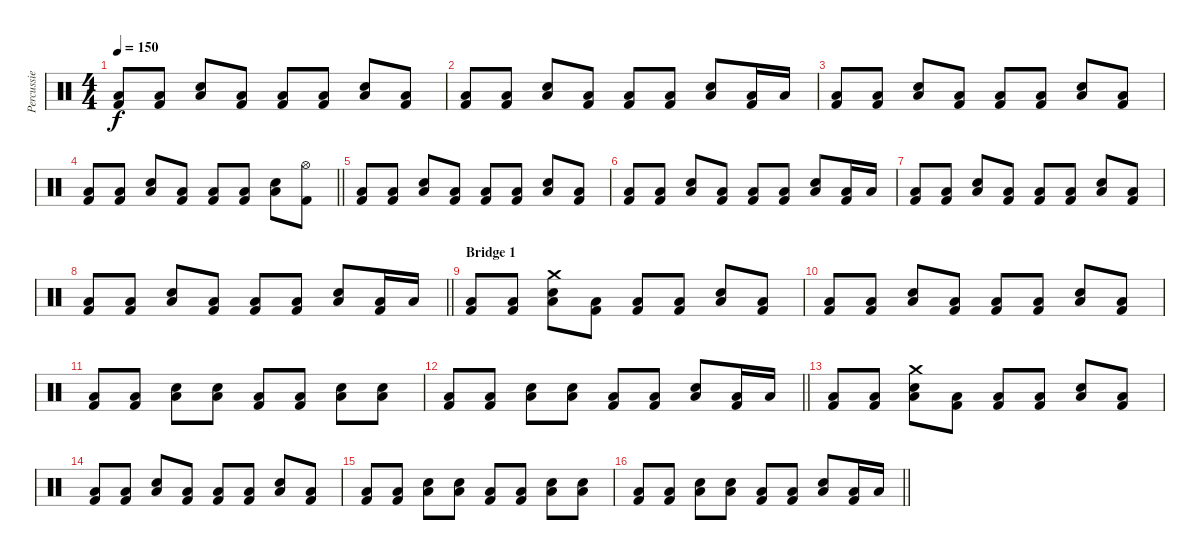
\track ("Percussie" "Percussie") {instrument percussion}
\staff {score}
\articulation defaults
\ts (4 4)
\tempo 150
\clef neutral
\ks c
("Low Floor Tom (hit)" "Kick (hit) 2").8{dy f} ("Low Floor Tom (hit)" "Kick (hit) 2").8 ("Snare (hit) 2" "Low Floor Tom (hit)").8 ("Low Floor Tom (hit)" "Kick (hit) 2").8 ("Low Floor Tom (hit)" "Kick (hit) 2").8 ("Low Floor Tom (hit)" "Kick (hit) 2").8 ("Snare (hit) 2" "Low Floor Tom (hit)").8 ("Low Floor Tom (hit)" "Kick (hit) 2").8 |
("Low Floor Tom (hit)" "Kick (hit) 2").8 ("Low Floor Tom (hit)" "Kick (hit) 2").8 ("Snare (hit) 2" "Low Floor Tom (hit)").8 ("Low Floor Tom (hit)" "Kick (hit) 2").8 ("Low Floor Tom (hit)" "Kick (hit) 2").8 ("Low Floor Tom (hit)" "Kick (hit) 2").8 ("Snare (hit) 2" "Low Floor Tom (hit)").8 ("Low Floor Tom (hit)" "Kick (hit) 2").16 "Low Floor Tom (hit)".16 |
("Low Floor Tom (hit)" "Kick (hit) 2").8 ("Low Floor Tom (hit)" "Kick (hit) 2").8 ("Snare (hit) 2" "Low Floor Tom (hit)").8 ("Low Floor Tom (hit)" "Kick (hit) 2").8 ("Low Floor Tom (hit)" "Kick (hit) 2").8 ("Low Floor Tom (hit)" "Kick (hit) 2").8 ("Snare (hit) 2" "Low Floor Tom (hit)").8 ("Low Floor Tom (hit)" "Kick (hit) 2").8 |
\barLineRight lightlight
("Low Floor Tom (hit)" "Kick (hit) 2").8 ("Low Floor Tom (hit)" "Kick (hit) 2").8 ("Snare (hit) 2" "Low Floor Tom (hit)").8 ("Low Floor Tom (hit)" "Kick (hit) 2").8 ("Low Floor Tom (hit)" "Kick (hit) 2").8 ("Low Floor Tom (hit)" "Kick (hit) 2").8 ("Snare (hit) 2" "Low Floor Tom (hit)").8 ("Hi-Hat (open)" "Kick (hit) 2").8 |
("Low Floor Tom (hit)" "Kick (hit) 2").8 ("Low Floor Tom (hit)" "Kick (hit) 2").8 ("Snare (hit) 2" "Low Floor Tom (hit)").8 ("Low Floor Tom (hit)" "Kick (hit) 2").8 ("Low Floor Tom (hit)" "Kick (hit) 2").8 ("Low Floor Tom (hit)" "Kick (hit) 2").8 ("Snare (hit) 2" "Low Floor Tom (hit)").8 ("Low Floor Tom (hit)" "Kick (hit) 2").8 |
("Low Floor Tom (hit)" "Kick (hit) 2").8 ("Low Floor Tom (hit)" "Kick (hit) 2").8 ("Snare (hit) 2" "Low Floor Tom (hit)").8 ("Low Floor Tom (hit)" "Kick (hit) 2").8 ("Low Floor Tom (hit)" "Kick (hit) 2").8 ("Low Floor Tom (hit)" "Kick (hit) 2").8 ("Snare (hit) 2" "Low Floor Tom (hit)").8 ("Low Floor Tom (hit)" "Kick (hit) 2").16 "Low Floor Tom (hit)".16 |
("Low Floor Tom (hit)" "Kick (hit) 2").8 ("Low Floor Tom (hit)" "Kick (hit) 2").8 ("Snare (hit) 2" "Low Floor Tom (hit)").8 ("Low Floor Tom (hit)" "Kick (hit) 2").8 ("Low Floor Tom (hit)" "Kick (hit) 2").8 ("Low Floor Tom (hit)" "Kick (hit) 2").8 ("Snare (hit) 2" "Low Floor Tom (hit)").8 ("Low Floor Tom (hit)" "Kick (hit) 2").8 |
\barLineRight lightlight
("Low Floor Tom (hit)" "Kick (hit) 2").8 ("Low Floor Tom (hit)" "Kick (hit) 2").8 ("Snare (hit) 2" "Low Floor Tom (hit)").8 ("Low Floor Tom (hit)" "Kick (hit) 2").8 ("Low Floor Tom (hit)" "Kick (hit) 2").8 ("Low Floor Tom (hit)" "Kick (hit) 2").8 ("Snare (hit) 2" "Low Floor Tom (hit)").8 ("Low Floor Tom (hit)" "Kick (hit) 2").16 "Low Floor Tom (hit)".16 |
\section ("" "Bridge 1")
("Low Floor Tom (hit)" "Kick (hit) 2").8 ("Low Floor Tom (hit)" "Kick (hit) 2").8 ("Crash medium (hit)" "Snare (hit) 2" "Low Floor Tom (hit)").8 ("Low Floor Tom (hit)" "Kick (hit) 2").8 ("Low Floor Tom (hit)" "Kick (hit) 2").8 ("Low Floor Tom (hit)" "Kick (hit) 2").8 ("Snare (hit) 2" "Low Floor Tom (hit)").8 ("Low Floor Tom (hit)" "Kick (hit) 2").8 |
("Low Floor Tom (hit)" "Kick (hit) 2").8 ("Low Floor Tom (hit)" "Kick (hit) 2").8 ("Snare (hit) 2" "Low Floor Tom (hit)").8 ("Low Floor Tom (hit)" "Kick (hit) 2").8 ("Low Floor Tom (hit)" "Kick (hit) 2").8 ("Low Floor Tom (hit)" "Kick (hit) 2").8 ("Snare (hit) 2" "Low Floor Tom (hit)").8 ("Low Floor Tom (hit)" "Kick (hit) 2").8 |
("Low Floor Tom (hit)" "Kick (hit) 2").8 ("Low Floor Tom (hit)" "Kick (hit) 2").8 ("Snare (hit) 2" "Low Floor Tom (hit)").8 ("Snare (hit) 2" "Low Floor Tom (hit)").8 ("Low Floor Tom (hit)" "Kick (hit) 2").8 ("Low Floor Tom (hit)" "Kick (hit) 2").8 ("Snare (hit) 2" "Low Floor Tom (hit)").8 ("Snare (hit) 2" "Low Floor Tom (hit)").8 |
\barLineRight lightlight
("Low Floor Tom (hit)" "Kick (hit) 2").8 ("Low Floor Tom (hit)" "Kick (hit) 2").8 ("Snare (hit) 2" "Low Floor Tom (hit)").8 ("Snare (hit) 2" "Low Floor Tom (hit)").8 ("Low Floor Tom (hit)" "Kick (hit) 2").8 ("Low Floor Tom (hit)" "Kick (hit) 2").8 ("Snare (hit) 2" "Low Floor Tom (hit)").8 ("Low Floor Tom (hit)" "Kick (hit) 2").16 "Low Floor Tom (hit)".16 |
("Low Floor Tom (hit)" "Kick (hit) 2").8 ("Low Floor Tom (hit)" "Kick (hit) 2").8 ("Crash medium (hit)" "Snare (hit) 2" "Low Floor Tom (hit)").8 ("Low Floor Tom (hit)" "Kick (hit) 2").8 ("Low Floor Tom (hit)" "Kick (hit) 2").8 ("Low Floor Tom (hit)" "Kick (hit) 2").8 ("Snare (hit) 2" "Low Floor Tom (hit)").8 ("Low Floor Tom (hit)" "Kick (hit) 2").8 |
("Low Floor Tom (hit)" "Kick (hit) 2").8 ("Low Floor Tom (hit)" "Kick (hit) 2").8 ("Snare (hit) 2" "Low Floor Tom (hit)").8 ("Low Floor Tom (hit)" "Kick (hit) 2").8 ("Low Floor Tom (hit)" "Kick (hit) 2").8 ("Low Floor Tom (hit)" "Kick (hit) 2").8 ("Snare (hit) 2" "Low Floor Tom (hit)").8 ("Low Floor Tom (hit)" "Kick (hit) 2").8 |
("Low Floor Tom (hit)" "Kick (hit) 2").8 ("Low Floor Tom (hit)" "Kick (hit) 2").8 ("Snare (hit) 2" "Low Floor Tom (hit)").8 ("Snare (hit) 2" "Low Floor Tom (hit)").8 ("Low Floor Tom (hit)" "Kick (hit) 2").8 ("Low Floor Tom (hit)" "Kick (hit) 2").8 ("Snare (hit) 2" "Low Floor Tom (hit)").8 ("Snare (hit) 2" "Low Floor Tom (hit)").8 |
\barLineRight lightlight
("Low Floor Tom (hit)" "Kick (hit) 2").8 ("Low Floor Tom (hit)" "Kick (hit) 2").8 ("Snare (hit) 2" "Low Floor Tom (hit)").8 ("Snare (hit) 2" "Low Floor Tom (hit)").8 ("Low Floor Tom (hit)" "Kick (hit) 2").8 ("Low Floor Tom (hit)" "Kick (hit) 2").8 ("Snare (hit) 2" "Low Floor Tom (hit)").8 ("Low Floor Tom (hit)" "Kick (hit) 2").16 "Low Floor Tom (hit)".16
